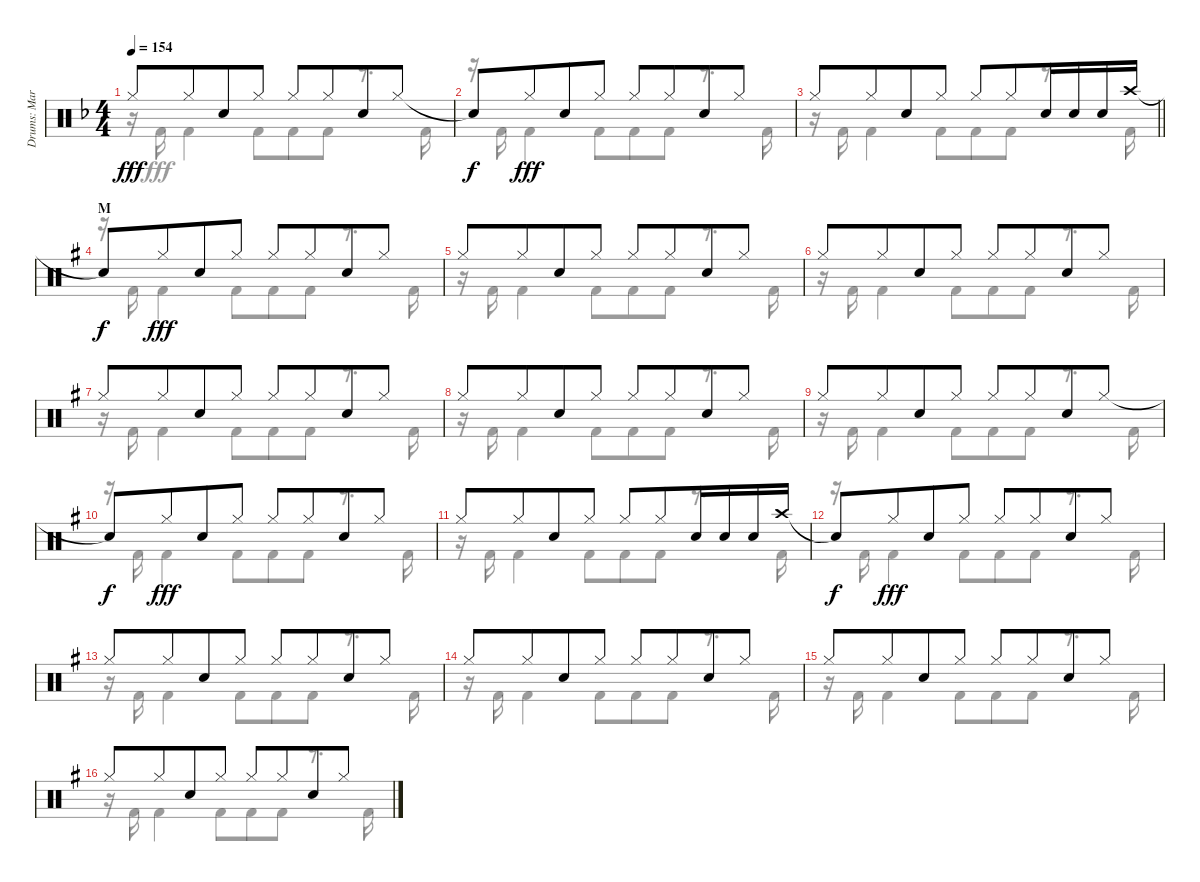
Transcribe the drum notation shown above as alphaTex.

\track ("Drums: Mark" "Drums: Mar") {instrument percussion}
\staff {score}
\articulation defaults
\voice
\ts (4 4)
\tempo 154
\clef neutral
\ks f "Hi-Hat (closed)".8{dy fff} "Hi-Hat (closed)".8{beam merge} "Snare (hit) 2".8 "Hi-Hat (closed)".8 "Hi-Hat (closed)".8 "Hi-Hat (closed)".8{beam merge} "Snare (hit) 2".8 "Hi-Hat (closed)".8
|
"Snare (hit)"{t}.8{dy f} "Hi-Hat (closed)".8{dy fff beam merge} "Snare (hit) 2".8 "Hi-Hat (closed)".8 "Hi-Hat (closed)".8 "Hi-Hat (closed)".8{beam merge} "Snare (hit) 2".8 "Hi-Hat (closed)".8 |
\barLineRight lightlight "Hi-Hat (closed)".8 "Hi-Hat (closed)".8{beam merge} "Snare (hit) 2".8 "Hi-Hat (closed)".8 "Hi-Hat (closed)".8 "Hi-Hat (closed)".8{beam merge} "Snare (hit) 2".16 "Snare (hit) 2".16 "Snare (hit) 2".16 "Crash high (hit)".16
|
\section ("" "M")
\ks g "Snare (hit)"{t}.8{dy f} "Hi-Hat (closed)".8{dy fff beam merge} "Snare (hit) 2".8 "Hi-Hat (closed)".8 "Hi-Hat (closed)".8 "Hi-Hat (closed)".8{beam merge} "Snare (hit) 2".8 "Hi-Hat (closed)".8
|
"Hi-Hat (closed)".8 "Hi-Hat (closed)".8{beam merge} "Snare (hit) 2".8 "Hi-Hat (closed)".8 "Hi-Hat (closed)".8 "Hi-Hat (closed)".8{beam merge} "Snare (hit) 2".8 "Hi-Hat (closed)".8 |
"Hi-Hat (closed)".8 "Hi-Hat (closed)".8{beam merge} "Snare (hit) 2".8 "Hi-Hat (closed)".8 "Hi-Hat (closed)".8 "Hi-Hat (closed)".8{beam merge} "Snare (hit) 2".8 "Hi-Hat (closed)".8 |
"Hi-Hat (closed)".8 "Hi-Hat (closed)".8{beam merge} "Snare (hit) 2".8 "Hi-Hat (closed)".8 "Hi-Hat (closed)".8 "Hi-Hat (closed)".8{beam merge} "Snare (hit) 2".8 "Hi-Hat (closed)".8 |
"Hi-Hat (closed)".8 "Hi-Hat (closed)".8{beam merge} "Snare (hit) 2".8 "Hi-Hat (closed)".8 "Hi-Hat (closed)".8 "Hi-Hat (closed)".8{beam merge} "Snare (hit) 2".8 "Hi-Hat (closed)".8 |
"Hi-Hat (closed)".8 "Hi-Hat (closed)".8{beam merge} "Snare (hit) 2".8 "Hi-Hat (closed)".8 "Hi-Hat (closed)".8 "Hi-Hat (closed)".8{beam merge} "Snare (hit) 2".8 "Hi-Hat (closed)".8 |
"Snare (hit)"{t}.8{dy f} "Hi-Hat (closed)".8{dy fff beam merge} "Snare (hit) 2".8 "Hi-Hat (closed)".8 "Hi-Hat (closed)".8 "Hi-Hat (closed)".8{beam merge} "Snare (hit) 2".8 "Hi-Hat (closed)".8 |
"Hi-Hat (closed)".8 "Hi-Hat (closed)".8{beam merge} "Snare (hit) 2".8 "Hi-Hat (closed)".8 "Hi-Hat (closed)".8 "Hi-Hat (closed)".8{beam merge} "Snare (hit) 2".16 "Snare (hit) 2".16 "Snare (hit) 2".16 "Crash high (hit)".16 |
"Snare (hit)"{t}.8{dy f} "Hi-Hat (closed)".8{dy fff beam merge} "Snare (hit) 2".8 "Hi-Hat (closed)".8 "Hi-Hat (closed)".8 "Hi-Hat (closed)".8{beam merge} "Snare (hit) 2".8 "Hi-Hat (closed)".8 |
"Hi-Hat (closed)".8 "Hi-Hat (closed)".8{beam merge} "Snare (hit) 2".8 "Hi-Hat (closed)".8 "Hi-Hat (closed)".8 "Hi-Hat (closed)".8{beam merge} "Snare (hit) 2".8 "Hi-Hat (closed)".8 |
"Hi-Hat (closed)".8 "Hi-Hat (closed)".8{beam merge} "Snare (hit) 2".8 "Hi-Hat (closed)".8 "Hi-Hat (closed)".8 "Hi-Hat (closed)".8{beam merge} "Snare (hit) 2".8 "Hi-Hat (closed)".8 |
"Hi-Hat (closed)".8 "Hi-Hat (closed)".8{beam merge} "Snare (hit) 2".8 "Hi-Hat (closed)".8 "Hi-Hat (closed)".8 "Hi-Hat (closed)".8{beam merge} "Snare (hit) 2".8 "Hi-Hat (closed)".8 |
"Hi-Hat (closed)".8 "Hi-Hat (closed)".8{beam merge} "Snare (hit) 2".8 "Hi-Hat (closed)".8 "Hi-Hat (closed)".8 "Hi-Hat (closed)".8{beam merge} "Snare (hit) 2".8 "Hi-Hat (closed)".8
\voice
\clef neutral
\ottava regular
\simile none
\ks f
r.16{dy fff} "Kick (hit) 2".16 "Kick (hit) 2".4 "Kick (hit) 2".8{beam merge} "Kick (hit) 2".8 "Kick (hit) 2".8 r.8{d} "Kick (hit) 2".16 |
r.16 "Kick (hit) 2".16 "Kick (hit) 2".4 "Kick (hit) 2".8{beam merge} "Kick (hit) 2".8 "Kick (hit) 2".8 r.8{d} "Kick (hit) 2".16 |
\barLineRight lightlight
r.16 "Kick (hit) 2".16 "Kick (hit) 2".4 "Kick (hit) 2".8{beam merge} "Kick (hit) 2".8 "Kick (hit) 2".8 r.8{d} "Kick (hit) 2".16 |
\ks g
r.16 "Kick (hit) 2".16 "Kick (hit) 2".4 "Kick (hit) 2".8{beam merge} "Kick (hit) 2".8 "Kick (hit) 2".8 r.8{d} "Kick (hit) 2".16 |
r.16 "Kick (hit) 2".16 "Kick (hit) 2".4 "Kick (hit) 2".8{beam merge} "Kick (hit) 2".8 "Kick (hit) 2".8 r.8{d} "Kick (hit) 2".16 |
r.16 "Kick (hit) 2".16 "Kick (hit) 2".4 "Kick (hit) 2".8{beam merge} "Kick (hit) 2".8 "Kick (hit) 2".8 r.8{d} "Kick (hit) 2".16 |
r.16 "Kick (hit) 2".16 "Kick (hit) 2".4 "Kick (hit) 2".8{beam merge} "Kick (hit) 2".8 "Kick (hit) 2".8 r.8{d} "Kick (hit) 2".16 |
r.16 "Kick (hit) 2".16 "Kick (hit) 2".4 "Kick (hit) 2".8{beam merge} "Kick (hit) 2".8 "Kick (hit) 2".8 r.8{d} "Kick (hit) 2".16 |
r.16 "Kick (hit) 2".16 "Kick (hit) 2".4 "Kick (hit) 2".8{beam merge} "Kick (hit) 2".8 "Kick (hit) 2".8 r.8{d} "Kick (hit) 2".16 |
r.16 "Kick (hit) 2".16 "Kick (hit) 2".4 "Kick (hit) 2".8{beam merge} "Kick (hit) 2".8 "Kick (hit) 2".8 r.8{d} "Kick (hit) 2".16 |
r.16 "Kick (hit) 2".16 "Kick (hit) 2".4 "Kick (hit) 2".8{beam merge} "Kick (hit) 2".8 "Kick (hit) 2".8 r.8{d} "Kick (hit) 2".16 |
r.16 "Kick (hit) 2".16 "Kick (hit) 2".4 "Kick (hit) 2".8{beam merge} "Kick (hit) 2".8 "Kick (hit) 2".8 r.8{d} "Kick (hit) 2".16 |
r.16 "Kick (hit) 2".16 "Kick (hit) 2".4 "Kick (hit) 2".8{beam merge} "Kick (hit) 2".8 "Kick (hit) 2".8 r.8{d} "Kick (hit) 2".16 |
r.16 "Kick (hit) 2".16 "Kick (hit) 2".4 "Kick (hit) 2".8{beam merge} "Kick (hit) 2".8 "Kick (hit) 2".8 r.8{d} "Kick (hit) 2".16 |
r.16 "Kick (hit) 2".16 "Kick (hit) 2".4 "Kick (hit) 2".8{beam merge} "Kick (hit) 2".8 "Kick (hit) 2".8 r.8{d} "Kick (hit) 2".16 |
r.16 "Kick (hit) 2".16 "Kick (hit) 2".4 "Kick (hit) 2".8{beam merge} "Kick (hit) 2".8 "Kick (hit) 2".8 r.8{d} "Kick (hit) 2".16
